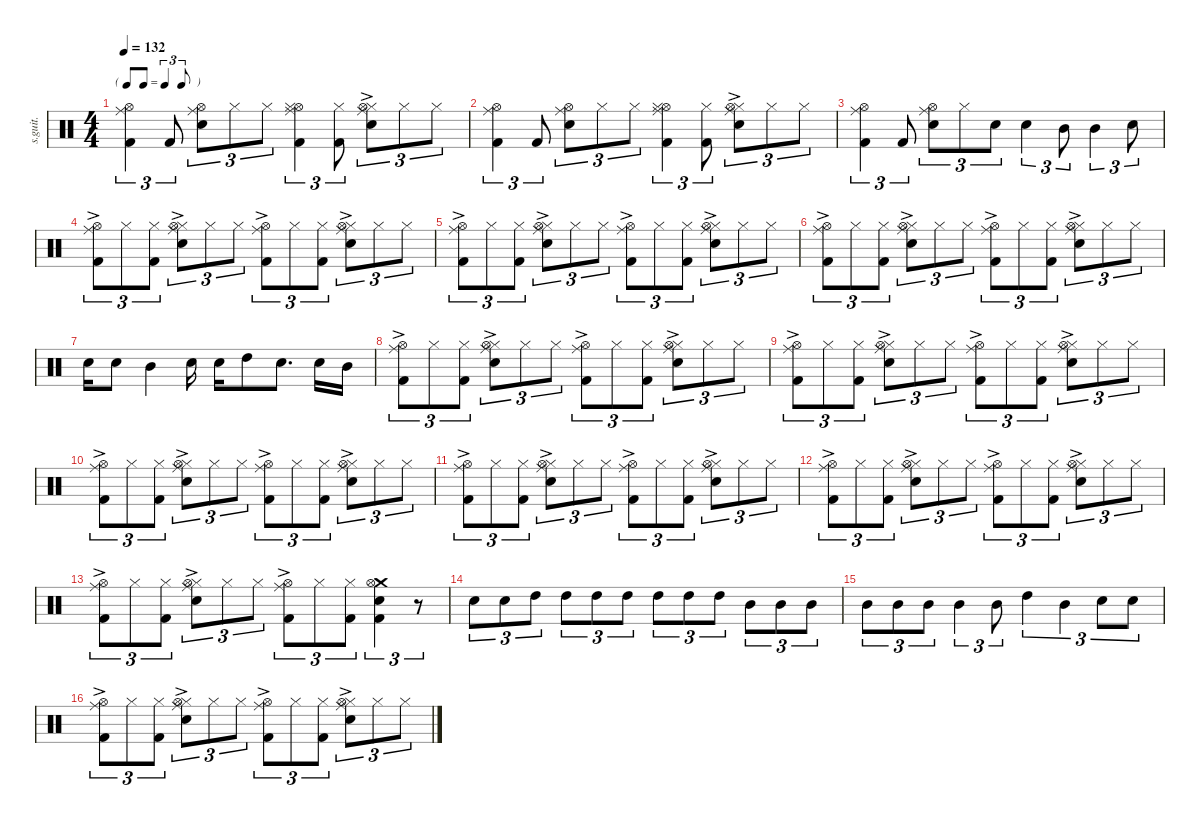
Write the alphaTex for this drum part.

\defaultSystemsLayout 4
\hideDynamics
\bracketExtendMode nobrackets
\track ("Nick Mason | Ludwig Drumkit | Drums" "s.guit.") {instrument percussion}
\staff {score}
\articulation defaults
\ts (4 4)
\tf triplet8th
\tempo 132
\clef neutral
\ks c
("Hi-Hat (open)" "Ride (middle)" "Kick (hit) 2").4{tu (3 2) dy mf} "Kick (hit) 2".8{tu (3 2)} ("Hi-Hat (open)" "Ride (middle)" "Snare (hit) 2").8{tu (3 2)} "Hi-Hat (closed)".8{tu (3 2)} "Hi-Hat (closed)".8{tu (3 2)} ("Hi-Hat (open)" "Hi-Hat (closed)" "Ride (middle)" "Kick (hit) 2").4{tu (3 2)} ("Hi-Hat (closed)" "Kick (hit) 2").8{tu (3 2)} ("Hi-Hat (closed)"{ac} "Hi-Hat (open)" "Ride (middle)" "Snare (hit) 2").8{tu (3 2) dy f} "Hi-Hat (closed)".8{tu (3 2) dy mf} "Hi-Hat (closed)".8{tu (3 2)} |
("Hi-Hat (open)" "Ride (middle)" "Kick (hit) 2").4{tu (3 2)} "Kick (hit) 2".8{tu (3 2)} ("Hi-Hat (open)" "Ride (middle)" "Snare (hit) 2").8{tu (3 2)} "Hi-Hat (closed)".8{tu (3 2)} "Hi-Hat (closed)".8{tu (3 2)} ("Hi-Hat (open)" "Hi-Hat (closed)" "Ride (middle)" "Kick (hit) 2").4{tu (3 2)} ("Hi-Hat (closed)" "Kick (hit) 2").8{tu (3 2)} ("Hi-Hat (closed)"{ac} "Hi-Hat (open)" "Ride (middle)" "Snare (hit) 2").8{tu (3 2) dy f} "Hi-Hat (closed)".8{tu (3 2) dy mf} "Hi-Hat (closed)".8{tu (3 2)} |
("Hi-Hat (open)" "Ride (middle)" "Kick (hit) 2").4{tu (3 2)} "Kick (hit) 2".8{tu (3 2)} ("Hi-Hat (open)" "Ride (middle)" "Snare (hit) 2").8{tu (3 2)} "Hi-Hat (closed)".8{tu (3 2)} "Snare (hit) 2".8{tu (3 2)} "Snare (hit) 2".4{tu (3 2)} "Mid Tom (hit)".8{tu (3 2)} "Mid Tom (hit)".4{tu (3 2)} "Snare (hit) 2".8{tu (3 2)} |
("Hi-Hat (open)"{ac} "Ride (middle)" "Kick (hit) 2").8{tu (3 2) dy f} "Hi-Hat (closed)".8{tu (3 2) dy mf} ("Hi-Hat (closed)" "Kick (hit) 2").8{tu (3 2)} ("Hi-Hat (closed)"{ac} "Hi-Hat (open)" "Ride (middle)" "Snare (hit) 2").8{tu (3 2) dy f} "Hi-Hat (closed)".8{tu (3 2)} "Hi-Hat (closed)".8{tu (3 2)} ("Hi-Hat (open)"{ac} "Ride (middle)" "Kick (hit) 2").8{tu (3 2)} "Hi-Hat (closed)".8{tu (3 2) dy mf} ("Hi-Hat (closed)" "Kick (hit) 2").8{tu (3 2)} ("Hi-Hat (closed)"{ac} "Hi-Hat (open)" "Ride (middle)" "Snare (hit) 2").8{tu (3 2) dy f} "Hi-Hat (closed)".8{tu (3 2)} "Hi-Hat (closed)".8{tu (3 2)} |
("Hi-Hat (open)"{ac} "Ride (middle)" "Kick (hit) 2").8{tu (3 2)} "Hi-Hat (closed)".8{tu (3 2) dy mf} ("Hi-Hat (closed)" "Kick (hit) 2").8{tu (3 2)} ("Hi-Hat (closed)"{ac} "Hi-Hat (open)" "Ride (middle)" "Snare (hit) 2").8{tu (3 2) dy f} "Hi-Hat (closed)".8{tu (3 2)} "Hi-Hat (closed)".8{tu (3 2)} ("Hi-Hat (open)"{ac} "Ride (middle)" "Kick (hit) 2").8{tu (3 2)} "Hi-Hat (closed)".8{tu (3 2) dy mf} ("Hi-Hat (closed)" "Kick (hit) 2").8{tu (3 2)} ("Hi-Hat (closed)"{ac} "Hi-Hat (open)" "Ride (middle)" "Snare (hit) 2").8{tu (3 2) dy f} "Hi-Hat (closed)".8{tu (3 2)} "Hi-Hat (closed)".8{tu (3 2)} |
("Hi-Hat (open)"{ac} "Ride (middle)" "Kick (hit) 2").8{tu (3 2)} "Hi-Hat (closed)".8{tu (3 2) dy mf} ("Hi-Hat (closed)" "Kick (hit) 2").8{tu (3 2)} ("Hi-Hat (closed)"{ac} "Hi-Hat (open)" "Ride (middle)" "Snare (hit) 2").8{tu (3 2) dy f} "Hi-Hat (closed)".8{tu (3 2)} "Hi-Hat (closed)".8{tu (3 2)} ("Hi-Hat (open)"{ac} "Ride (middle)" "Kick (hit) 2").8{tu (3 2)} "Hi-Hat (closed)".8{tu (3 2) dy mf} ("Hi-Hat (closed)" "Kick (hit) 2").8{tu (3 2)} ("Hi-Hat (closed)"{ac} "Hi-Hat (open)" "Ride (middle)" "Snare (hit) 2").8{tu (3 2) dy f} "Hi-Hat (closed)".8{tu (3 2)} "Hi-Hat (closed)".8{tu (3 2)} |
"Snare (hit) 2".16{dy mf} "Snare (hit) 2".8 "Mid Tom (hit)".4 "Snare (hit) 2".16 "Snare (hit) 2".16 "High Tom (hit)".8 "Snare (hit) 2".8{d} "Snare (hit) 2".16 "Mid Tom (hit)".16 |
("Hi-Hat (open)"{ac} "Ride (middle)" "Kick (hit) 2").8{tu (3 2) dy f} "Hi-Hat (closed)".8{tu (3 2) dy mf} ("Hi-Hat (closed)" "Kick (hit) 2").8{tu (3 2)} ("Hi-Hat (closed)"{ac} "Hi-Hat (open)" "Ride (middle)" "Snare (hit) 2").8{tu (3 2) dy f} "Hi-Hat (closed)".8{tu (3 2)} "Hi-Hat (closed)".8{tu (3 2)} ("Hi-Hat (open)"{ac} "Ride (middle)" "Kick (hit) 2").8{tu (3 2)} "Hi-Hat (closed)".8{tu (3 2) dy mf} ("Hi-Hat (closed)" "Kick (hit) 2").8{tu (3 2)} ("Hi-Hat (closed)"{ac} "Hi-Hat (open)" "Ride (middle)" "Snare (hit) 2").8{tu (3 2) dy f} "Hi-Hat (closed)".8{tu (3 2)} "Hi-Hat (closed)".8{tu (3 2)} |
("Hi-Hat (open)"{ac} "Ride (middle)" "Kick (hit) 2").8{tu (3 2)} "Hi-Hat (closed)".8{tu (3 2) dy mf} ("Hi-Hat (closed)" "Kick (hit) 2").8{tu (3 2)} ("Hi-Hat (closed)"{ac} "Hi-Hat (open)" "Ride (middle)" "Snare (hit) 2").8{tu (3 2) dy f} "Hi-Hat (closed)".8{tu (3 2)} "Hi-Hat (closed)".8{tu (3 2)} ("Hi-Hat (open)"{ac} "Ride (middle)" "Kick (hit) 2").8{tu (3 2)} "Hi-Hat (closed)".8{tu (3 2) dy mf} ("Hi-Hat (closed)" "Kick (hit) 2").8{tu (3 2)} ("Hi-Hat (closed)"{ac} "Hi-Hat (open)" "Ride (middle)" "Snare (hit) 2").8{tu (3 2) dy f} "Hi-Hat (closed)".8{tu (3 2)} "Hi-Hat (closed)".8{tu (3 2)} |
("Hi-Hat (open)"{ac} "Ride (middle)" "Kick (hit) 2").8{tu (3 2)} "Hi-Hat (closed)".8{tu (3 2) dy mf} ("Hi-Hat (closed)" "Kick (hit) 2").8{tu (3 2)} ("Hi-Hat (closed)"{ac} "Hi-Hat (open)" "Ride (middle)" "Snare (hit) 2").8{tu (3 2) dy f} "Hi-Hat (closed)".8{tu (3 2)} "Hi-Hat (closed)".8{tu (3 2)} ("Hi-Hat (open)"{ac} "Ride (middle)" "Kick (hit) 2").8{tu (3 2)} "Hi-Hat (closed)".8{tu (3 2) dy mf} ("Hi-Hat (closed)" "Kick (hit) 2").8{tu (3 2)} ("Hi-Hat (closed)"{ac} "Hi-Hat (open)" "Ride (middle)" "Snare (hit) 2").8{tu (3 2) dy f} "Hi-Hat (closed)".8{tu (3 2)} "Hi-Hat (closed)".8{tu (3 2)} |
("Hi-Hat (open)"{ac} "Ride (middle)" "Kick (hit) 2").8{tu (3 2)} "Hi-Hat (closed)".8{tu (3 2) dy mf} ("Hi-Hat (closed)" "Kick (hit) 2").8{tu (3 2)} ("Hi-Hat (closed)"{ac} "Hi-Hat (open)" "Ride (middle)" "Snare (hit) 2").8{tu (3 2) dy f} "Hi-Hat (closed)".8{tu (3 2)} "Hi-Hat (closed)".8{tu (3 2)} ("Hi-Hat (open)"{ac} "Ride (middle)" "Kick (hit) 2").8{tu (3 2)} "Hi-Hat (closed)".8{tu (3 2) dy mf} ("Hi-Hat (closed)" "Kick (hit) 2").8{tu (3 2)} ("Hi-Hat (closed)"{ac} "Hi-Hat (open)" "Ride (middle)" "Snare (hit) 2").8{tu (3 2) dy f} "Hi-Hat (closed)".8{tu (3 2)} "Hi-Hat (closed)".8{tu (3 2)} |
("Hi-Hat (open)"{ac} "Ride (middle)" "Kick (hit) 2").8{tu (3 2)} "Hi-Hat (closed)".8{tu (3 2) dy mf} ("Hi-Hat (closed)" "Kick (hit) 2").8{tu (3 2)} ("Hi-Hat (closed)"{ac} "Hi-Hat (open)" "Ride (middle)" "Snare (hit) 2").8{tu (3 2) dy f} "Hi-Hat (closed)".8{tu (3 2)} "Hi-Hat (closed)".8{tu (3 2)} ("Hi-Hat (open)"{ac} "Ride (middle)" "Kick (hit) 2").8{tu (3 2)} "Hi-Hat (closed)".8{tu (3 2) dy mf} ("Hi-Hat (closed)" "Kick (hit) 2").8{tu (3 2)} ("Hi-Hat (closed)"{ac} "Hi-Hat (open)" "Ride (middle)" "Snare (hit) 2").8{tu (3 2) dy f} "Hi-Hat (closed)".8{tu (3 2)} "Hi-Hat (closed)".8{tu (3 2)} |
("Hi-Hat (open)"{ac} "Ride (middle)" "Kick (hit) 2").8{tu (3 2)} "Hi-Hat (closed)".8{tu (3 2) dy mf} ("Hi-Hat (closed)" "Kick (hit) 2").8{tu (3 2)} ("Hi-Hat (closed)"{ac} "Hi-Hat (open)" "Ride (middle)" "Snare (hit) 2").8{tu (3 2) dy f} "Hi-Hat (closed)".8{tu (3 2)} "Hi-Hat (closed)".8{tu (3 2)} ("Hi-Hat (open)"{ac} "Ride (middle)" "Kick (hit) 2").8{tu (3 2)} "Hi-Hat (closed)".8{tu (3 2) dy mf} ("Hi-Hat (closed)" "Kick (hit) 2").8{tu (3 2)} ("Crash medium (hit)" "Hi-Hat (open)" "Snare (hit) 2" "Kick (hit) 2").4{tu (3 2)} r.8{tu (3 2)} |
"Snare (hit) 2".8{tu (3 2)} "Snare (hit) 2".8{tu (3 2)} "High Tom (hit)".8{tu (3 2)} "High Tom (hit)".8{tu (3 2)} "High Tom (hit)".8{tu (3 2)} "High Tom (hit)".8{tu (3 2)} "High Tom (hit)".8{tu (3 2)} "High Tom (hit)".8{tu (3 2)} "High Tom (hit)".8{tu (3 2)} "Mid Tom (hit)".8{tu (3 2)} "Mid Tom (hit)".8{tu (3 2)} "Mid Tom (hit)".8{tu (3 2)} |
"Mid Tom (hit)".8{tu (3 2)} "Mid Tom (hit)".8{tu (3 2)} "Mid Tom (hit)".8{tu (3 2)} "Mid Tom (hit)".4{tu (3 2)} "Mid Tom (hit)".8{tu (3 2)} "High Tom (hit)".4{tu (3 2)} "Mid Tom (hit)".4{tu (3 2)} "Snare (hit) 2".8{tu (3 2)} "Snare (hit) 2".8{tu (3 2)} |
("Hi-Hat (open)"{ac} "Ride (middle)" "Kick (hit) 2").8{tu (3 2) dy f} "Hi-Hat (closed)".8{tu (3 2) dy mf} ("Hi-Hat (closed)" "Kick (hit) 2").8{tu (3 2)} ("Hi-Hat (closed)"{ac} "Hi-Hat (open)" "Ride (middle)" "Snare (hit) 2").8{tu (3 2) dy f} "Hi-Hat (closed)".8{tu (3 2)} "Hi-Hat (closed)".8{tu (3 2)} ("Hi-Hat (open)"{ac} "Ride (middle)" "Kick (hit) 2").8{tu (3 2)} "Hi-Hat (closed)".8{tu (3 2) dy mf} ("Hi-Hat (closed)" "Kick (hit) 2").8{tu (3 2)} ("Hi-Hat (closed)"{ac} "Hi-Hat (open)" "Ride (middle)" "Snare (hit) 2").8{tu (3 2) dy f} "Hi-Hat (closed)".8{tu (3 2)} "Hi-Hat (closed)".8{tu (3 2)}
